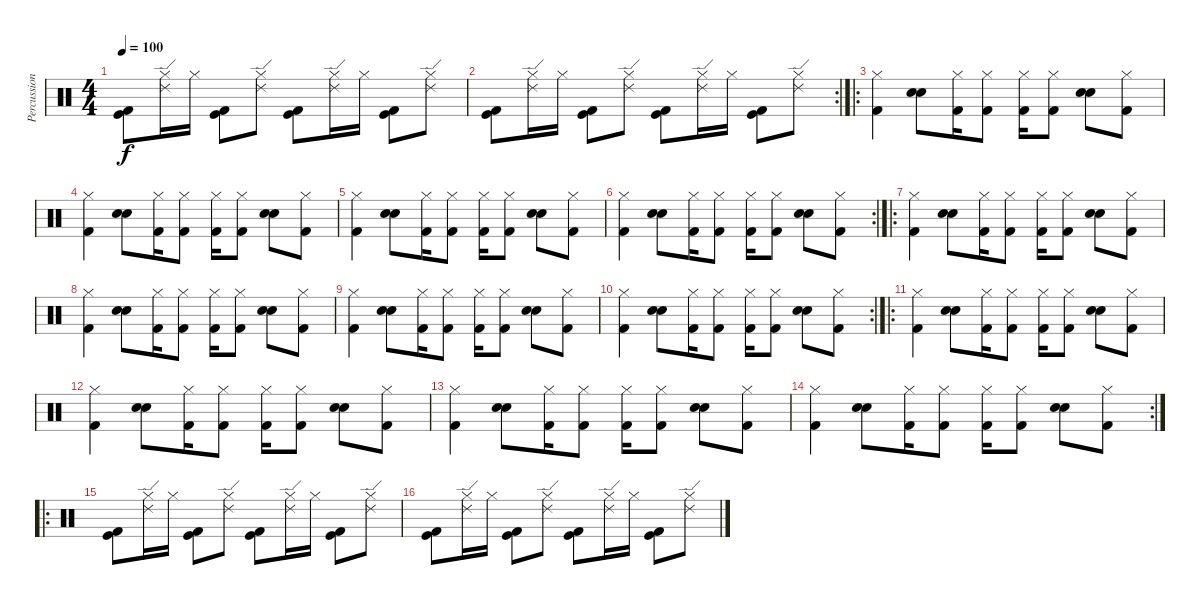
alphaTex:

\track ("Percussions" "Percussion") {instrument percussion}
\staff {score}
\articulation defaults
\ts (4 4)
\tempo 100
\clef neutral
\ks c
("Kick (hit)" "Kick (hit) 2").8{dy f} ("Ride (edge) 2" "Hi-Hat (closed)").16 "Hi-Hat (closed)".16 ("Kick (hit)" "Kick (hit) 2").8 ("Ride (edge) 2" "Hi-Hat (closed)").8 ("Kick (hit)" "Kick (hit) 2").8 ("Ride (edge) 2" "Hi-Hat (closed)").16 "Hi-Hat (closed)".16 ("Kick (hit)" "Kick (hit) 2").8 ("Ride (edge) 2" "Hi-Hat (closed)").8 |
\rc 2
("Kick (hit)" "Kick (hit) 2").8 ("Ride (edge) 2" "Hi-Hat (closed)").16 "Hi-Hat (closed)".16 ("Kick (hit)" "Kick (hit) 2").8 ("Ride (edge) 2" "Hi-Hat (closed)").8 ("Kick (hit)" "Kick (hit) 2").8 ("Ride (edge) 2" "Hi-Hat (closed)").16 "Hi-Hat (closed)".16 ("Kick (hit)" "Kick (hit) 2").8 ("Ride (edge) 2" "Hi-Hat (closed)").8 |
\ro
("Hi-Hat (closed)" "Kick (hit) 2").4 ("Snare (hit) 2" "Electric Snare (hit)").8 ("Hi-Hat (closed)" "Kick (hit) 2").16 ("Hi-Hat (closed)" "Kick (hit) 2").8 ("Hi-Hat (closed)" "Kick (hit) 2").16 ("Hi-Hat (closed)" "Kick (hit) 2").8 ("Snare (hit) 2" "Electric Snare (hit)").8 ("Hi-Hat (closed)" "Kick (hit) 2").8 |
("Hi-Hat (closed)" "Kick (hit) 2").4 ("Snare (hit) 2" "Electric Snare (hit)").8 ("Hi-Hat (closed)" "Kick (hit) 2").16 ("Hi-Hat (closed)" "Kick (hit) 2").8 ("Hi-Hat (closed)" "Kick (hit) 2").16 ("Hi-Hat (closed)" "Kick (hit) 2").8 ("Snare (hit) 2" "Electric Snare (hit)").8 ("Hi-Hat (closed)" "Kick (hit) 2").8 |
("Hi-Hat (closed)" "Kick (hit) 2").4 ("Snare (hit) 2" "Electric Snare (hit)").8 ("Hi-Hat (closed)" "Kick (hit) 2").16 ("Hi-Hat (closed)" "Kick (hit) 2").8 ("Hi-Hat (closed)" "Kick (hit) 2").16 ("Hi-Hat (closed)" "Kick (hit) 2").8 ("Snare (hit) 2" "Electric Snare (hit)").8 ("Hi-Hat (closed)" "Kick (hit) 2").8 |
\rc 2
("Hi-Hat (closed)" "Kick (hit) 2").4 ("Snare (hit) 2" "Electric Snare (hit)").8 ("Hi-Hat (closed)" "Kick (hit) 2").16 ("Hi-Hat (closed)" "Kick (hit) 2").8 ("Hi-Hat (closed)" "Kick (hit) 2").16 ("Hi-Hat (closed)" "Kick (hit) 2").8 ("Snare (hit) 2" "Electric Snare (hit)").8 ("Hi-Hat (closed)" "Kick (hit) 2").8 |
\ro
("Hi-Hat (closed)" "Kick (hit) 2").4 ("Snare (hit) 2" "Electric Snare (hit)").8 ("Hi-Hat (closed)" "Kick (hit) 2").16 ("Hi-Hat (closed)" "Kick (hit) 2").8 ("Hi-Hat (closed)" "Kick (hit) 2").16 ("Hi-Hat (closed)" "Kick (hit) 2").8 ("Snare (hit) 2" "Electric Snare (hit)").8 ("Hi-Hat (closed)" "Kick (hit) 2").8 |
("Hi-Hat (closed)" "Kick (hit) 2").4 ("Snare (hit) 2" "Electric Snare (hit)").8 ("Hi-Hat (closed)" "Kick (hit) 2").16 ("Hi-Hat (closed)" "Kick (hit) 2").8 ("Hi-Hat (closed)" "Kick (hit) 2").16 ("Hi-Hat (closed)" "Kick (hit) 2").8 ("Snare (hit) 2" "Electric Snare (hit)").8 ("Hi-Hat (closed)" "Kick (hit) 2").8 |
("Hi-Hat (closed)" "Kick (hit) 2").4 ("Snare (hit) 2" "Electric Snare (hit)").8 ("Hi-Hat (closed)" "Kick (hit) 2").16 ("Hi-Hat (closed)" "Kick (hit) 2").8 ("Hi-Hat (closed)" "Kick (hit) 2").16 ("Hi-Hat (closed)" "Kick (hit) 2").8 ("Snare (hit) 2" "Electric Snare (hit)").8 ("Hi-Hat (closed)" "Kick (hit) 2").8 |
\rc 2
("Hi-Hat (closed)" "Kick (hit) 2").4 ("Snare (hit) 2" "Electric Snare (hit)").8 ("Hi-Hat (closed)" "Kick (hit) 2").16 ("Hi-Hat (closed)" "Kick (hit) 2").8 ("Hi-Hat (closed)" "Kick (hit) 2").16 ("Hi-Hat (closed)" "Kick (hit) 2").8 ("Snare (hit) 2" "Electric Snare (hit)").8 ("Hi-Hat (closed)" "Kick (hit) 2").8 |
\ro
("Hi-Hat (closed)" "Kick (hit) 2").4 ("Snare (hit) 2" "Electric Snare (hit)").8 ("Hi-Hat (closed)" "Kick (hit) 2").16 ("Hi-Hat (closed)" "Kick (hit) 2").8 ("Hi-Hat (closed)" "Kick (hit) 2").16 ("Hi-Hat (closed)" "Kick (hit) 2").8 ("Snare (hit) 2" "Electric Snare (hit)").8 ("Hi-Hat (closed)" "Kick (hit) 2").8 |
("Hi-Hat (closed)" "Kick (hit) 2").4 ("Snare (hit) 2" "Electric Snare (hit)").8 ("Hi-Hat (closed)" "Kick (hit) 2").16 ("Hi-Hat (closed)" "Kick (hit) 2").8 ("Hi-Hat (closed)" "Kick (hit) 2").16 ("Hi-Hat (closed)" "Kick (hit) 2").8 ("Snare (hit) 2" "Electric Snare (hit)").8 ("Hi-Hat (closed)" "Kick (hit) 2").8 |
("Hi-Hat (closed)" "Kick (hit) 2").4 ("Snare (hit) 2" "Electric Snare (hit)").8 ("Hi-Hat (closed)" "Kick (hit) 2").16 ("Hi-Hat (closed)" "Kick (hit) 2").8 ("Hi-Hat (closed)" "Kick (hit) 2").16 ("Hi-Hat (closed)" "Kick (hit) 2").8 ("Snare (hit) 2" "Electric Snare (hit)").8 ("Hi-Hat (closed)" "Kick (hit) 2").8 |
\rc 2
("Hi-Hat (closed)" "Kick (hit) 2").4 ("Snare (hit) 2" "Electric Snare (hit)").8 ("Hi-Hat (closed)" "Kick (hit) 2").16 ("Hi-Hat (closed)" "Kick (hit) 2").8 ("Hi-Hat (closed)" "Kick (hit) 2").16 ("Hi-Hat (closed)" "Kick (hit) 2").8 ("Snare (hit) 2" "Electric Snare (hit)").8 ("Hi-Hat (closed)" "Kick (hit) 2").8 |
\ro
("Kick (hit)" "Kick (hit) 2").8 ("Ride (edge) 2" "Hi-Hat (closed)").16 "Hi-Hat (closed)".16 ("Kick (hit)" "Kick (hit) 2").8 ("Ride (edge) 2" "Hi-Hat (closed)").8 ("Kick (hit)" "Kick (hit) 2").8 ("Ride (edge) 2" "Hi-Hat (closed)").16 "Hi-Hat (closed)".16 ("Kick (hit)" "Kick (hit) 2").8 ("Ride (edge) 2" "Hi-Hat (closed)").8 |
("Kick (hit)" "Kick (hit) 2").8 ("Ride (edge) 2" "Hi-Hat (closed)").16 "Hi-Hat (closed)".16 ("Kick (hit)" "Kick (hit) 2").8 ("Ride (edge) 2" "Hi-Hat (closed)").8 ("Kick (hit)" "Kick (hit) 2").8 ("Ride (edge) 2" "Hi-Hat (closed)").16 "Hi-Hat (closed)".16 ("Kick (hit)" "Kick (hit) 2").8 ("Ride (edge) 2" "Hi-Hat (closed)").8
